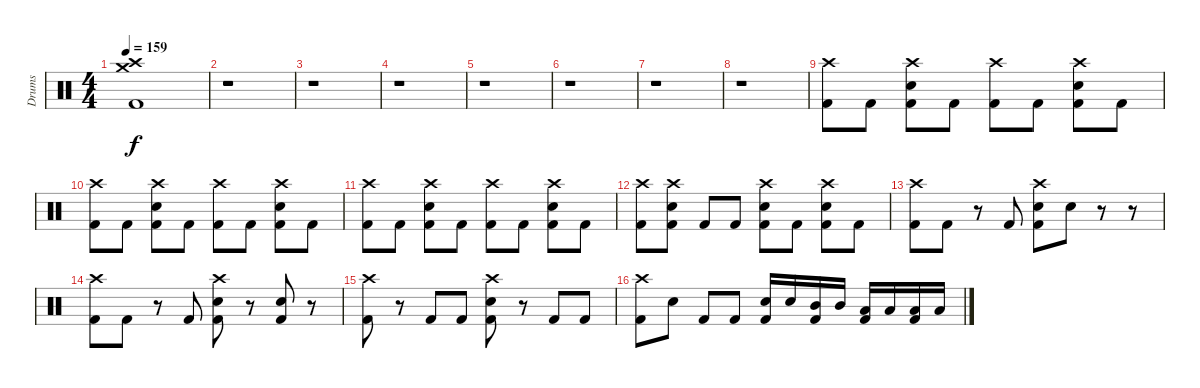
\track ("Drums" "Drums") {instrument percussion}
\staff {score}
\articulation defaults
\ts (4 4)
\tempo 159
\clef neutral
\ks c
("Crash medium (hit)" "Crash high (hit)" "Kick (hit) 2").1{dy f} |
r.1 |
r.1 |
r.1 |
r.1 |
r.1 |
r.1 |
r.1 |
("Crash high (hit)" "Kick (hit) 2").8 "Kick (hit) 2".8 ("Crash high (hit)" "Electric Snare (hit)" "Kick (hit) 2").8 "Kick (hit) 2".8 ("Crash high (hit)" "Kick (hit) 2").8 "Kick (hit) 2".8 ("Crash high (hit)" "Electric Snare (hit)" "Kick (hit) 2").8 "Kick (hit) 2".8 |
("Crash high (hit)" "Kick (hit) 2").8 "Kick (hit) 2".8 ("Crash high (hit)" "Electric Snare (hit)" "Kick (hit) 2").8 "Kick (hit) 2".8 ("Crash high (hit)" "Kick (hit) 2").8 "Kick (hit) 2".8 ("Crash high (hit)" "Electric Snare (hit)" "Kick (hit) 2").8 "Kick (hit) 2".8 |
("Crash high (hit)" "Kick (hit) 2").8 "Kick (hit) 2".8 ("Crash high (hit)" "Electric Snare (hit)" "Kick (hit) 2").8 "Kick (hit) 2".8 ("Crash high (hit)" "Kick (hit) 2").8 "Kick (hit) 2".8 ("Crash high (hit)" "Electric Snare (hit)" "Kick (hit) 2").8 "Kick (hit) 2".8 |
("Crash high (hit)" "Kick (hit) 2").8 ("Crash high (hit)" "Electric Snare (hit)" "Kick (hit) 2").8 "Kick (hit) 2".8 "Kick (hit) 2".8 ("Crash high (hit)" "Electric Snare (hit)" "Kick (hit) 2").8 "Kick (hit) 2".8 ("Crash high (hit)" "Electric Snare (hit)" "Kick (hit) 2").8 "Kick (hit) 2".8 |
("Crash high (hit)" "Kick (hit) 2").8 "Kick (hit) 2".8 r.8 "Kick (hit) 2".8 ("Crash high (hit)" "Electric Snare (hit)" "Kick (hit) 2").8 "Electric Snare (hit)".8 r.8 r.8 |
("Crash high (hit)" "Kick (hit) 2").8 "Kick (hit) 2".8 r.8 "Kick (hit) 2".8 ("Crash high (hit)" "Electric Snare (hit)" "Kick (hit) 2").8 r.8 ("Electric Snare (hit)" "Kick (hit) 2").8 r.8 |
("Crash high (hit)" "Kick (hit) 2").8 r.8 "Kick (hit) 2".8 "Kick (hit) 2".8 ("Crash high (hit)" "Electric Snare (hit)" "Kick (hit) 2").8 r.8 "Kick (hit) 2".8 "Kick (hit) 2".8 |
("Crash high (hit)" "Kick (hit) 2").8 "Electric Snare (hit)".8 "Kick (hit) 2".8 "Kick (hit) 2".8 ("Electric Snare (hit)" "Kick (hit) 2").16 "Electric Snare (hit)".16 ("Mid Tom (hit)" "Kick (hit) 2").16 "Mid Tom (hit)".16 ("Low Tom (hit)" "Kick (hit) 2").16 "Low Tom (hit)".16 ("Low Floor Tom (hit)" "Kick (hit) 2").16 "Low Floor Tom (hit)".16
